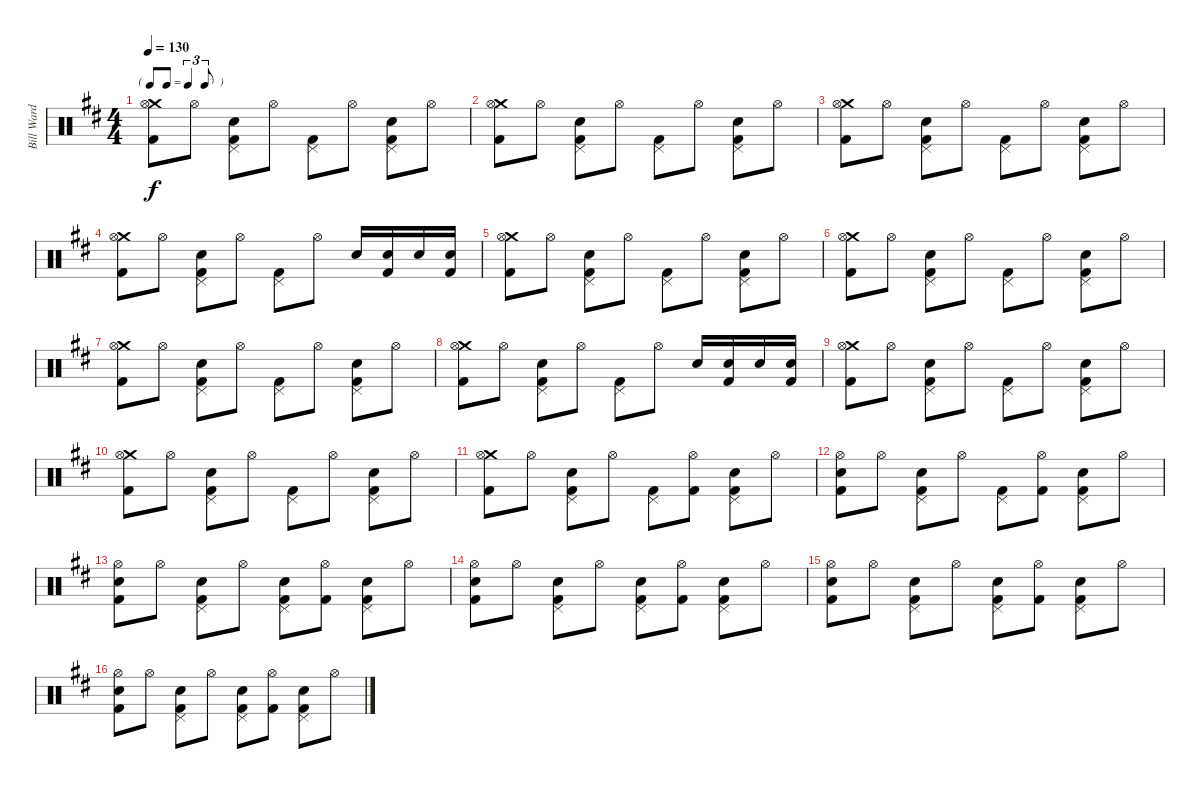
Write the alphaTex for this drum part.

\track ("Bill Ward" "Bill Ward") {instrument percussion}
\staff {score}
\articulation defaults
\ts (4 4)
\tf triplet8th
\tempo 130
\clef neutral
\ks d
("Crash medium (hit)" "Hi-Hat (open)" "Kick (hit) 2").8{dy f} "Hi-Hat (open)".8 ("Pedal Hi-Hat (hit)" "Snare (hit) 2" "Kick (hit) 2").8 "Hi-Hat (open)".8 ("Pedal Hi-Hat (hit)" "Kick (hit) 2").8 "Hi-Hat (open)".8 ("Pedal Hi-Hat (hit)" "Snare (hit) 2" "Kick (hit) 2").8 "Hi-Hat (open)".8 |
("Crash medium (hit)" "Hi-Hat (open)" "Kick (hit) 2").8 "Hi-Hat (open)".8 ("Pedal Hi-Hat (hit)" "Snare (hit) 2" "Kick (hit) 2").8 "Hi-Hat (open)".8 ("Pedal Hi-Hat (hit)" "Kick (hit) 2").8 "Hi-Hat (open)".8 ("Pedal Hi-Hat (hit)" "Snare (hit) 2" "Kick (hit) 2").8 "Hi-Hat (open)".8 |
("Crash medium (hit)" "Hi-Hat (open)" "Kick (hit) 2").8 "Hi-Hat (open)".8 ("Pedal Hi-Hat (hit)" "Snare (hit) 2" "Kick (hit) 2").8 "Hi-Hat (open)".8 ("Pedal Hi-Hat (hit)" "Kick (hit) 2").8 "Hi-Hat (open)".8 ("Pedal Hi-Hat (hit)" "Snare (hit) 2" "Kick (hit) 2").8 "Hi-Hat (open)".8 |
("Crash medium (hit)" "Hi-Hat (open)" "Kick (hit) 2").8 "Hi-Hat (open)".8 ("Pedal Hi-Hat (hit)" "Snare (hit) 2" "Kick (hit) 2").8 "Hi-Hat (open)".8 ("Pedal Hi-Hat (hit)" "Kick (hit) 2").8 "Hi-Hat (open)".8 "Snare (hit) 2".16 ("Snare (hit) 2" "Kick (hit) 2").16 "Snare (hit) 2".16 ("Snare (hit) 2" "Kick (hit) 2").16 |
("Crash medium (hit)" "Hi-Hat (open)" "Kick (hit) 2").8 "Hi-Hat (open)".8 ("Pedal Hi-Hat (hit)" "Snare (hit) 2" "Kick (hit) 2").8 "Hi-Hat (open)".8 ("Pedal Hi-Hat (hit)" "Kick (hit) 2").8 "Hi-Hat (open)".8 ("Pedal Hi-Hat (hit)" "Snare (hit) 2" "Kick (hit) 2").8 "Hi-Hat (open)".8 |
("Crash medium (hit)" "Hi-Hat (open)" "Kick (hit) 2").8 "Hi-Hat (open)".8 ("Pedal Hi-Hat (hit)" "Snare (hit) 2" "Kick (hit) 2").8 "Hi-Hat (open)".8 ("Pedal Hi-Hat (hit)" "Kick (hit) 2").8 "Hi-Hat (open)".8 ("Pedal Hi-Hat (hit)" "Snare (hit) 2" "Kick (hit) 2").8 "Hi-Hat (open)".8 |
("Crash medium (hit)" "Hi-Hat (open)" "Kick (hit) 2").8 "Hi-Hat (open)".8 ("Pedal Hi-Hat (hit)" "Snare (hit) 2" "Kick (hit) 2").8 "Hi-Hat (open)".8 ("Pedal Hi-Hat (hit)" "Kick (hit) 2").8 "Hi-Hat (open)".8 ("Pedal Hi-Hat (hit)" "Snare (hit) 2" "Kick (hit) 2").8 "Hi-Hat (open)".8 |
("Crash medium (hit)" "Hi-Hat (open)" "Kick (hit) 2").8 "Hi-Hat (open)".8 ("Pedal Hi-Hat (hit)" "Snare (hit) 2" "Kick (hit) 2").8 "Hi-Hat (open)".8 ("Pedal Hi-Hat (hit)" "Kick (hit) 2").8 "Hi-Hat (open)".8 "Snare (hit) 2".16 ("Snare (hit) 2" "Kick (hit) 2").16 "Snare (hit) 2".16 ("Snare (hit) 2" "Kick (hit) 2").16 |
("Crash medium (hit)" "Hi-Hat (open)" "Kick (hit) 2").8 "Hi-Hat (open)".8 ("Pedal Hi-Hat (hit)" "Snare (hit) 2" "Kick (hit) 2").8 "Hi-Hat (open)".8 ("Pedal Hi-Hat (hit)" "Kick (hit) 2").8 "Hi-Hat (open)".8 ("Pedal Hi-Hat (hit)" "Snare (hit) 2" "Kick (hit) 2").8 "Hi-Hat (open)".8 |
("Crash medium (hit)" "Hi-Hat (open)" "Kick (hit) 2").8 "Hi-Hat (open)".8 ("Pedal Hi-Hat (hit)" "Snare (hit) 2" "Kick (hit) 2").8 "Hi-Hat (open)".8 ("Pedal Hi-Hat (hit)" "Kick (hit) 2").8 "Hi-Hat (open)".8 ("Pedal Hi-Hat (hit)" "Snare (hit) 2" "Kick (hit) 2").8 "Hi-Hat (open)".8 |
("Crash medium (hit)" "Hi-Hat (open)" "Kick (hit) 2").8 "Hi-Hat (open)".8 ("Pedal Hi-Hat (hit)" "Snare (hit) 2" "Kick (hit) 2").8 "Hi-Hat (open)".8 ("Pedal Hi-Hat (hit)" "Kick (hit) 2").8 ("Hi-Hat (open)" "Kick (hit) 2").8 ("Pedal Hi-Hat (hit)" "Snare (hit) 2" "Kick (hit) 2").8 "Hi-Hat (open)".8 |
("Hi-Hat (open)" "Snare (hit) 2" "Kick (hit) 2").8 "Hi-Hat (open)".8 ("Pedal Hi-Hat (hit)" "Snare (hit) 2" "Kick (hit) 2").8 "Hi-Hat (open)".8 ("Pedal Hi-Hat (hit)" "Kick (hit) 2").8 ("Hi-Hat (open)" "Kick (hit) 2").8 ("Pedal Hi-Hat (hit)" "Snare (hit) 2" "Kick (hit) 2").8 "Hi-Hat (open)".8 |
("Hi-Hat (open)" "Snare (hit) 2" "Kick (hit) 2").8 "Hi-Hat (open)".8 ("Pedal Hi-Hat (hit)" "Snare (hit) 2" "Kick (hit) 2").8 "Hi-Hat (open)".8 ("Pedal Hi-Hat (hit)" "Snare (hit) 2" "Kick (hit) 2").8 ("Hi-Hat (open)" "Kick (hit) 2").8 ("Pedal Hi-Hat (hit)" "Snare (hit) 2" "Kick (hit) 2").8 "Hi-Hat (open)".8 |
("Hi-Hat (open)" "Snare (hit) 2" "Kick (hit) 2").8 "Hi-Hat (open)".8 ("Pedal Hi-Hat (hit)" "Snare (hit) 2" "Kick (hit) 2").8 "Hi-Hat (open)".8 ("Pedal Hi-Hat (hit)" "Snare (hit) 2" "Kick (hit) 2").8 ("Hi-Hat (open)" "Kick (hit) 2").8 ("Pedal Hi-Hat (hit)" "Snare (hit) 2" "Kick (hit) 2").8 "Hi-Hat (open)".8 |
("Hi-Hat (open)" "Snare (hit) 2" "Kick (hit) 2").8 "Hi-Hat (open)".8 ("Pedal Hi-Hat (hit)" "Snare (hit) 2" "Kick (hit) 2").8 "Hi-Hat (open)".8 ("Pedal Hi-Hat (hit)" "Snare (hit) 2" "Kick (hit) 2").8 ("Hi-Hat (open)" "Kick (hit) 2").8 ("Pedal Hi-Hat (hit)" "Snare (hit) 2" "Kick (hit) 2").8 "Hi-Hat (open)".8 |
("Hi-Hat (open)" "Snare (hit) 2" "Kick (hit) 2").8 "Hi-Hat (open)".8 ("Pedal Hi-Hat (hit)" "Snare (hit) 2" "Kick (hit) 2").8 "Hi-Hat (open)".8 ("Pedal Hi-Hat (hit)" "Snare (hit) 2" "Kick (hit) 2").8 ("Hi-Hat (open)" "Kick (hit) 2").8 ("Pedal Hi-Hat (hit)" "Snare (hit) 2" "Kick (hit) 2").8 "Hi-Hat (open)".8
